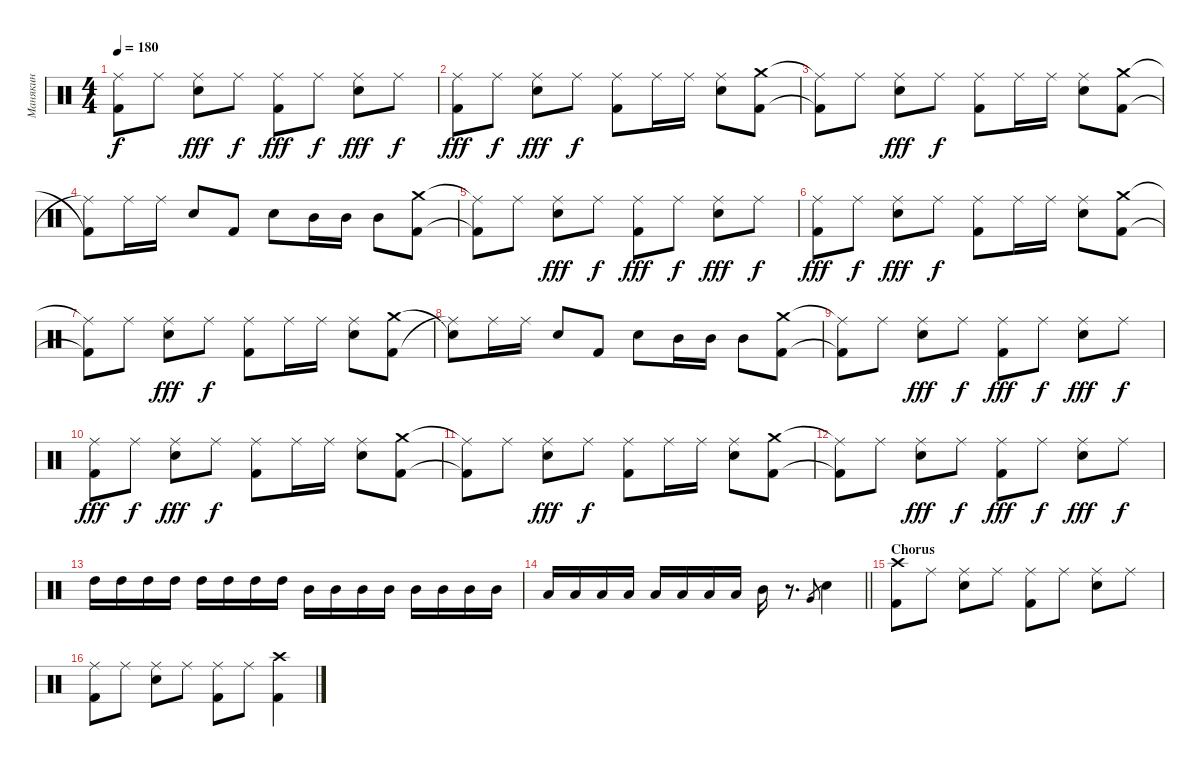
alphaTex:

\track ("Манякин" "Манякин") {instrument percussion}
\staff {score}
\articulation defaults
\ts (4 4)
\tempo 180
\clef neutral
\ks c
("Kick (hit) 2"{t} "Ride (middle)"{t}).8{dy f} "Ride (middle)".8 ("Snare (hit) 2" "Ride (middle)").8{dy fff} "Ride (middle)".8{dy f} ("Kick (hit) 2" "Ride (middle)").8{dy fff} "Ride (middle)".8{dy f} ("Snare (hit) 2" "Ride (middle)").8{dy fff} "Ride (middle)".8{dy f} |
("Kick (hit) 2" "Ride (middle)").8{dy fff} "Ride (middle)".8{dy f} ("Snare (hit) 2" "Ride (middle)").8{dy fff} "Ride (middle)".8{dy f} ("Kick (hit) 2" "Ride (middle)").8 "Ride (middle)".16 "Ride (middle)".16 ("Snare (hit) 2" "Ride (middle)").8 ("Kick (hit) 2" "Crash medium (hit)").8 |
("Kick (hit) 2"{t} "Ride (middle)"{t}).8 "Ride (middle)".8 ("Snare (hit) 2" "Ride (middle)").8{dy fff} "Ride (middle)".8{dy f} ("Kick (hit) 2" "Ride (middle)").8 "Ride (middle)".16 "Ride (middle)".16 ("Snare (hit) 2" "Ride (middle)").8 ("Kick (hit) 2" "Crash medium (hit)").8 |
("Ride (middle)"{t} "Kick (hit) 2"{t}).8 "Ride (middle)".16 "Ride (middle)".16 "Snare (hit) 2".8 "Kick (hit) 2".8 "Snare (hit) 2".8 "Mid Tom (hit)".16 "Mid Tom (hit)".16 "Mid Tom (hit)".8 ("Kick (hit) 2" "Crash medium (hit)").8 |
("Kick (hit) 2"{t} "Ride (middle)"{t}).8 "Ride (middle)".8 ("Snare (hit) 2" "Ride (middle)").8{dy fff} "Ride (middle)".8{dy f} ("Kick (hit) 2" "Ride (middle)").8{dy fff} "Ride (middle)".8{dy f} ("Snare (hit) 2" "Ride (middle)").8{dy fff} "Ride (middle)".8{dy f} |
("Kick (hit) 2" "Ride (middle)").8{dy fff} "Ride (middle)".8{dy f} ("Snare (hit) 2" "Ride (middle)").8{dy fff} "Ride (middle)".8{dy f} ("Kick (hit) 2" "Ride (middle)").8 "Ride (middle)".16 "Ride (middle)".16 ("Snare (hit) 2" "Ride (middle)").8 ("Kick (hit) 2" "Crash medium (hit)").8 |
("Kick (hit) 2"{t} "Ride (middle)"{t}).8 "Ride (middle)".8 ("Snare (hit) 2" "Ride (middle)").8{dy fff} "Ride (middle)".8{dy f} ("Kick (hit) 2" "Ride (middle)").8 "Ride (middle)".16 "Ride (middle)".16 ("Snare (hit) 2" "Ride (middle)").8 ("Kick (hit) 2" "Crash medium (hit)").8 |
("Ride (middle)"{t} "Snare (hit)"{t}).8 "Ride (middle)".16 "Ride (middle)".16 "Snare (hit) 2".8 "Kick (hit) 2".8 "Snare (hit) 2".8 "Mid Tom (hit)".16 "Mid Tom (hit)".16 "Mid Tom (hit)".8 ("Kick (hit) 2" "Crash medium (hit)").8 |
("Kick (hit) 2"{t} "Ride (middle)"{t}).8 "Ride (middle)".8 ("Snare (hit) 2" "Ride (middle)").8{dy fff} "Ride (middle)".8{dy f} ("Kick (hit) 2" "Ride (middle)").8{dy fff} "Ride (middle)".8{dy f} ("Snare (hit) 2" "Ride (middle)").8{dy fff} "Ride (middle)".8{dy f} |
("Kick (hit) 2" "Ride (middle)").8{dy fff} "Ride (middle)".8{dy f} ("Snare (hit) 2" "Ride (middle)").8{dy fff} "Ride (middle)".8{dy f} ("Kick (hit) 2" "Ride (middle)").8 "Ride (middle)".16 "Ride (middle)".16 ("Snare (hit) 2" "Ride (middle)").8 ("Kick (hit) 2" "Crash medium (hit)").8 |
("Kick (hit) 2"{t} "Ride (middle)"{t}).8 "Ride (middle)".8 ("Snare (hit) 2" "Ride (middle)").8{dy fff} "Ride (middle)".8{dy f} ("Kick (hit) 2" "Ride (middle)").8 "Ride (middle)".16 "Ride (middle)".16 ("Snare (hit) 2" "Ride (middle)").8 ("Kick (hit) 2" "Crash medium (hit)").8 |
("Kick (hit) 2"{t} "Ride (middle)"{t}).8 "Ride (middle)".8 ("Snare (hit) 2" "Ride (middle)").8{dy fff} "Ride (middle)".8{dy f} ("Kick (hit) 2" "Ride (middle)").8{dy fff} "Ride (middle)".8{dy f} ("Snare (hit) 2" "Ride (middle)").8{dy fff} "Ride (middle)".8{dy f} |
"High Tom (hit)".16 "High Tom (hit)".16 "High Tom (hit)".16 "High Tom (hit)".16 "High Tom (hit)".16 "High Tom (hit)".16 "High Tom (hit)".16 "High Tom (hit)".16 "Mid Tom (hit)".16 "Mid Tom (hit)".16 "Mid Tom (hit)".16 "Mid Tom (hit)".16 "Mid Tom (hit)".16 "Mid Tom (hit)".16 "Mid Tom (hit)".16 "Mid Tom (hit)".16 |
\barLineRight lightlight "Low Tom (hit)".16 "Low Tom (hit)".16 "Low Tom (hit)".16 "Low Tom (hit)".16 "Low Tom (hit)".16 "Low Tom (hit)".16 "Low Tom (hit)".16 "Low Tom (hit)".16 "Mid Tom (hit)".16
r.8{d} "Very Low Tom (hit)".8{gr} "Snare (hit) 2".4 |
\section ("" "Chorus")
("Kick (hit) 2" "Crash high (hit)").8 "Ride (middle)".8 ("Snare (hit) 2" "Ride (middle)").8 "Ride (middle)".8 ("Kick (hit) 2" "Ride (middle)").8 "Ride (middle)".8 ("Snare (hit) 2" "Ride (middle)").8 "Ride (middle)".8 |
("Kick (hit) 2" "Ride (middle)").8 "Ride (middle)".8 ("Snare (hit) 2" "Ride (middle)").8 "Ride (middle)".8 ("Kick (hit) 2" "Ride (middle)").8 "Ride (middle)".8 ("Kick (hit) 2" "Crash high (hit)").4
